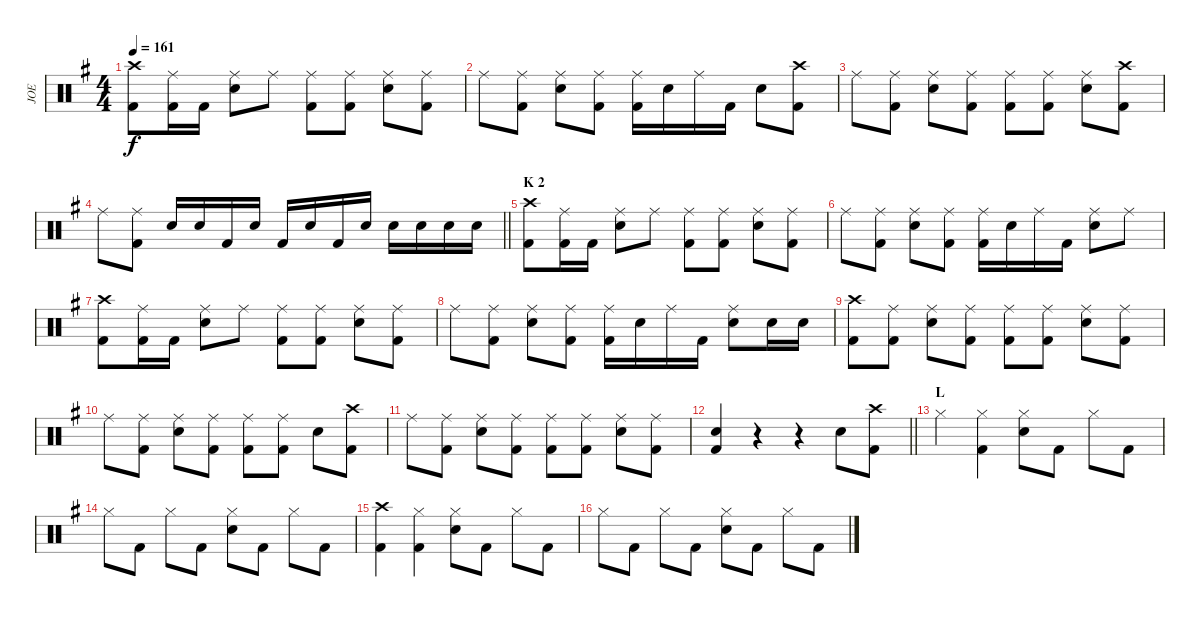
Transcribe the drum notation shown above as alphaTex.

\track ("JOE" "JOE") {instrument percussion}
\staff {score}
\articulation defaults
\ts (4 4)
\tempo 161
\clef neutral
\ks g
("Crash high (hit)" "Kick (hit) 2").8{dy f} ("Ride (middle)" "Kick (hit) 2").16 "Kick (hit) 2".16 ("Ride (middle)" "Snare (hit) 2").8 "Ride (middle)".8 ("Ride (middle)" "Kick (hit) 2").8 ("Ride (middle)" "Kick (hit) 2").8 ("Ride (middle)" "Snare (hit) 2").8 ("Ride (middle)" "Kick (hit) 2").8 |
"Ride (middle)".8 ("Ride (middle)" "Kick (hit) 2").8 ("Ride (middle)" "Snare (hit) 2").8 ("Ride (middle)" "Kick (hit) 2").8 ("Ride (middle)" "Kick (hit) 2").16 "Snare (hit) 2".16 "Ride (middle)".16 "Kick (hit) 2".16 "Snare (hit) 2".8 ("Crash high (hit)" "Kick (hit) 2").8 |
"Ride (middle)".8 ("Ride (middle)" "Kick (hit) 2").8 ("Ride (middle)" "Snare (hit) 2").8 ("Ride (middle)" "Kick (hit) 2").8 ("Ride (middle)" "Kick (hit) 2").8 ("Ride (middle)" "Kick (hit) 2").8 ("Ride (middle)" "Snare (hit) 2").8 ("Crash high (hit)" "Kick (hit) 2").8 |
\barLineRight lightlight "Ride (middle)".8
("Ride (middle)" "Kick (hit) 2").8 "Snare (hit) 2".16 "Snare (hit) 2".16 "Kick (hit) 2".16 "Snare (hit) 2".16 "Kick (hit) 2".16 "Snare (hit) 2".16 "Kick (hit) 2".16 "Snare (hit) 2".16 "Snare (hit) 2".16 "Snare (hit) 2".16 "Snare (hit) 2".16 "Snare (hit) 2".16 |
\section ("" "K 2")
("Crash high (hit)" "Kick (hit) 2").8 ("Ride (middle)" "Kick (hit) 2").16 "Kick (hit) 2".16 ("Ride (middle)" "Snare (hit) 2").8 "Ride (middle)".8 ("Ride (middle)" "Kick (hit) 2").8 ("Ride (middle)" "Kick (hit) 2").8 ("Ride (middle)" "Snare (hit) 2").8 ("Ride (middle)" "Kick (hit) 2").8 |
"Ride (middle)".8 ("Ride (middle)" "Kick (hit) 2").8 ("Ride (middle)" "Snare (hit) 2").8 ("Ride (middle)" "Kick (hit) 2").8 ("Ride (middle)" "Kick (hit) 2").16 "Snare (hit) 2".16 "Ride (middle)".16 "Kick (hit) 2".16 ("Ride (middle)" "Snare (hit) 2").8 "Ride (middle)".8 |
("Crash high (hit)" "Kick (hit) 2").8 ("Ride (middle)" "Kick (hit) 2").16 "Kick (hit) 2".16 ("Ride (middle)" "Snare (hit) 2").8 "Ride (middle)".8 ("Ride (middle)" "Kick (hit) 2").8 ("Ride (middle)" "Kick (hit) 2").8 ("Ride (middle)" "Snare (hit) 2").8 ("Ride (middle)" "Kick (hit) 2").8 |
"Ride (middle)".8 ("Ride (middle)" "Kick (hit) 2").8 ("Ride (middle)" "Snare (hit) 2").8 ("Ride (middle)" "Kick (hit) 2").8 ("Ride (middle)" "Kick (hit) 2").16 "Snare (hit) 2".16 "Ride (middle)".16 "Kick (hit) 2".16 ("Ride (middle)" "Snare (hit) 2").8 "Snare (hit) 2".16 "Snare (hit) 2".16 |
("Crash high (hit)" "Kick (hit) 2").8 ("Ride (middle)" "Kick (hit) 2").8 ("Ride (middle)" "Snare (hit) 2").8 ("Ride (middle)" "Kick (hit) 2").8 ("Ride (middle)" "Kick (hit) 2").8 ("Ride (middle)" "Kick (hit) 2").8 ("Ride (middle)" "Snare (hit) 2").8 ("Ride (middle)" "Kick (hit) 2").8 |
"Ride (middle)".8 ("Ride (middle)" "Kick (hit) 2").8 ("Ride (middle)" "Snare (hit) 2").8 ("Ride (middle)" "Kick (hit) 2").8 ("Ride (middle)" "Kick (hit) 2").8 ("Ride (middle)" "Kick (hit) 2").8 "Snare (hit) 2".8 ("Crash high (hit)" "Kick (hit) 2").8 |
"Ride (middle)".8 ("Ride (middle)" "Kick (hit) 2").8 ("Ride (middle)" "Snare (hit) 2").8 ("Ride (middle)" "Kick (hit) 2").8 ("Ride (middle)" "Kick (hit) 2").8 ("Ride (middle)" "Kick (hit) 2").8 ("Ride (middle)" "Snare (hit) 2").8 ("Ride (middle)" "Kick (hit) 2").8 |
\barLineRight lightlight
("Snare (hit) 2" "Kick (hit) 2").4 r.4 r.4 "Snare (hit) 2".8 ("Crash high (hit)" "Kick (hit) 2").8 |
\section ("" "L")
"Hi-Hat (closed)".4 ("Hi-Hat (closed)" "Kick (hit) 2").4 ("Hi-Hat (closed)" "Snare (hit) 2").8 "Kick (hit) 2".8 "Hi-Hat (closed)".8 "Kick (hit) 2".8 |
"Hi-Hat (closed)".8 "Kick (hit) 2".8 "Hi-Hat (closed)".8 "Kick (hit) 2".8 ("Hi-Hat (closed)" "Snare (hit) 2").8 "Kick (hit) 2".8 "Hi-Hat (closed)".8 "Kick (hit) 2".8 |
("Crash high (hit)" "Kick (hit) 2").4 ("Hi-Hat (closed)" "Kick (hit) 2").4 ("Hi-Hat (closed)" "Snare (hit) 2").8 "Kick (hit) 2".8 "Hi-Hat (closed)".8 "Kick (hit) 2".8 |
"Hi-Hat (closed)".8 "Kick (hit) 2".8 "Hi-Hat (closed)".8 "Kick (hit) 2".8 ("Hi-Hat (closed)" "Snare (hit) 2").8 "Kick (hit) 2".8 "Hi-Hat (closed)".8 "Kick (hit) 2".8
